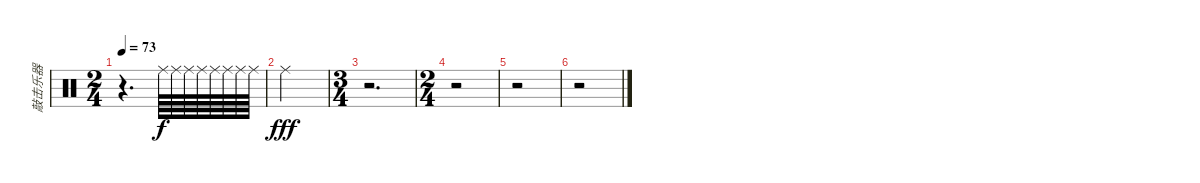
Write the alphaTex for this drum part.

\track ("敲击乐器" "敲击乐器") {instrument percussion}
\staff {score}
\articulation defaults
\ts (2 4)
\tempo 73
\clef neutral
\ks c
r.4{d dy f} "Ride (middle)".64{volume 6} "Ride (middle)".64{volume 6} "Ride (middle)".64{volume 7} "Ride (middle)".64{volume 8} "Ride (middle)".64{volume 9} "Ride (middle)".64{volume 10} "Ride (middle)".64{volume 12} "Ride (middle)".64{volume 14} |
"Ride (middle)".2{dy fff} |
\ts (3 4)
r.2{d} |
\ts (2 4)
r.2 |
r.2 |
r.2
